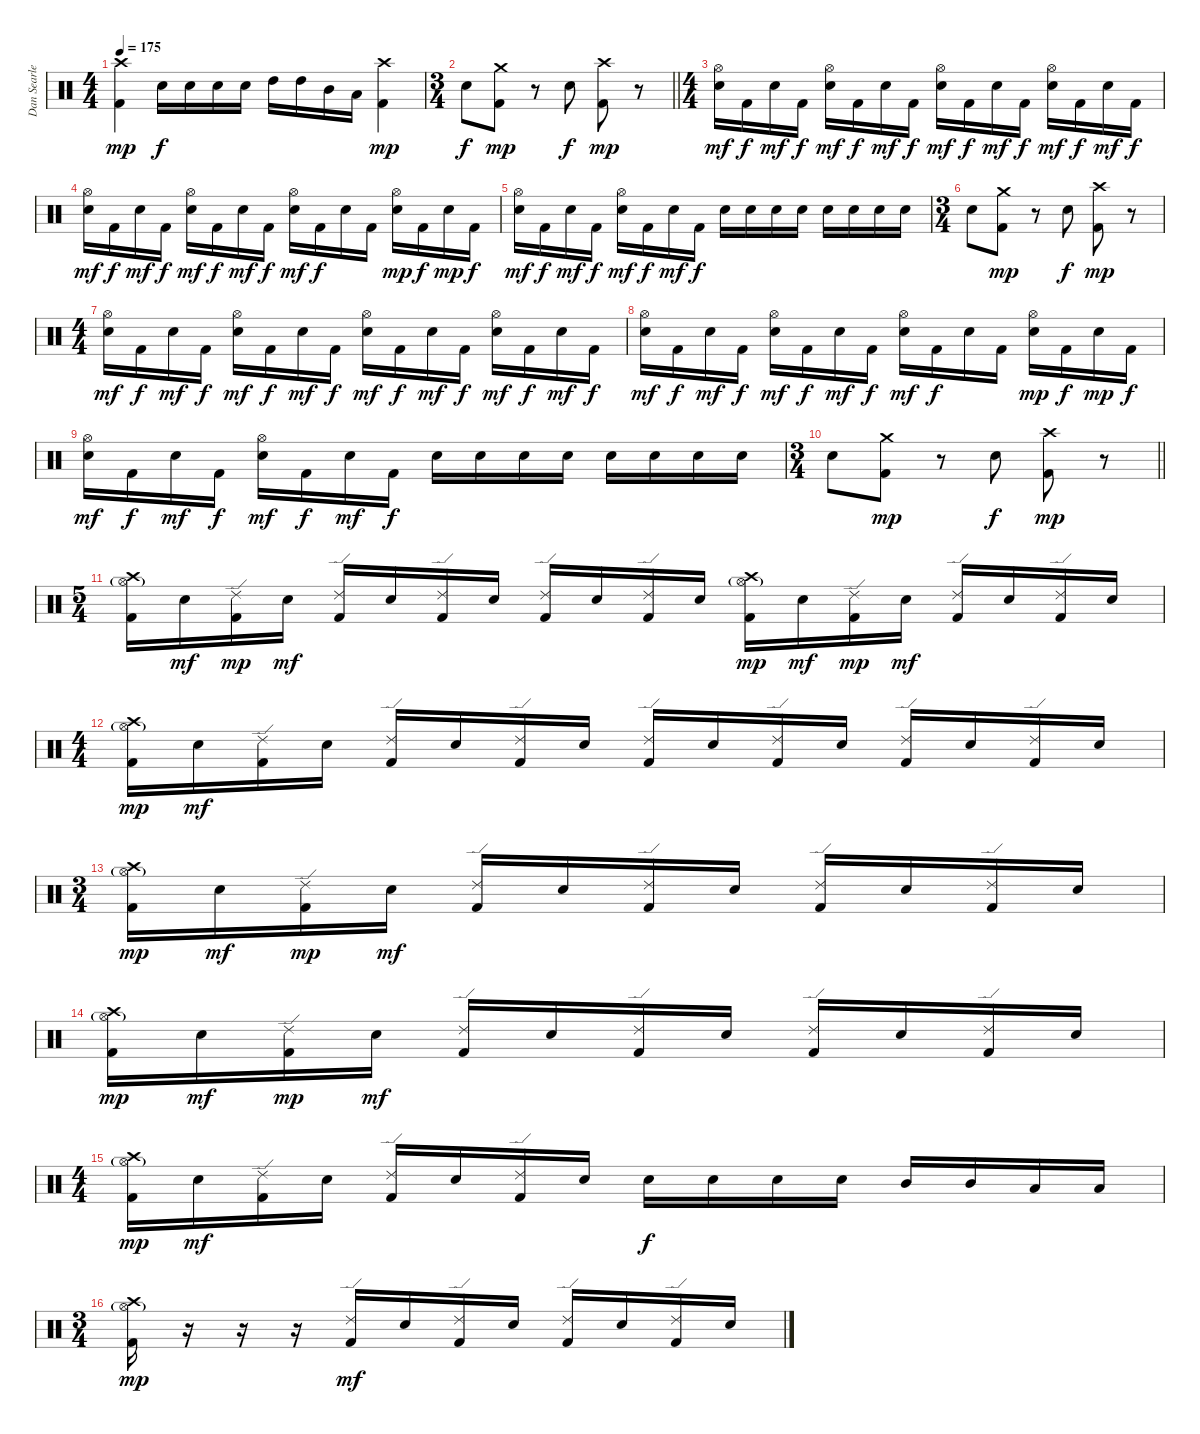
\track ("Dan Searle" "Dan Searle") {instrument percussion}
\staff {score}
\articulation defaults
\ts (4 4)
\tempo 175
\clef neutral
\ks c
("Crash high (hit)" "Kick (hit) 2").4{dy mp} "Electric Snare (hit)".16{dy f} "Electric Snare (hit)".16 "Electric Snare (hit)".16 "Electric Snare (hit)".16 "High Tom (hit)".16 "High Tom (hit)".16 "Mid Tom (hit)".16 "Low Tom (hit)".16 ("Crash high (hit)" "Kick (hit) 2").4{dy mp} |
\ts (3 4)
\barLineRight lightlight "Electric Snare (hit)".8{dy f}
("Crash medium (hit)" "Kick (hit) 2").8{dy mp} r.8 "Electric Snare (hit)".8{dy f} ("Crash high (hit)" "Kick (hit) 2").8{dy mp} r.8 |
\ts (4 4)
("Hi-Hat (open)" "Electric Snare (hit)").16{dy mf} "Kick (hit) 2".16{dy f} "Electric Snare (hit)".16{dy mf} "Kick (hit) 2".16{dy f} ("Hi-Hat (open)" "Electric Snare (hit)").16{dy mf} "Kick (hit) 2".16{dy f} "Electric Snare (hit)".16{dy mf} "Kick (hit) 2".16{dy f} ("Hi-Hat (open)" "Electric Snare (hit)").16{dy mf} "Kick (hit) 2".16{dy f} "Electric Snare (hit)".16{dy mf} "Kick (hit) 2".16{dy f} ("Hi-Hat (open)" "Electric Snare (hit)").16{dy mf} "Kick (hit) 2".16{dy f} "Electric Snare (hit)".16{dy mf} "Kick (hit) 2".16{dy f} |
("Hi-Hat (open)" "Electric Snare (hit)").16{dy mf} "Kick (hit) 2".16{dy f} "Electric Snare (hit)".16{dy mf} "Kick (hit) 2".16{dy f} ("Hi-Hat (open)" "Electric Snare (hit)").16{dy mf} "Kick (hit) 2".16{dy f} "Electric Snare (hit)".16{dy mf} "Kick (hit) 2".16{dy f} ("Hi-Hat (open)" "Electric Snare (hit)").16{dy mf} "Kick (hit) 2".16{dy f} "Electric Snare (hit)".16 "Kick (hit) 2".16 ("Hi-Hat (open)" "Electric Snare (hit)").16{dy mp} "Kick (hit) 2".16{dy f} "Electric Snare (hit)".16{dy mp} "Kick (hit) 2".16{dy f} |
("Hi-Hat (open)" "Electric Snare (hit)").16{dy mf} "Kick (hit) 2".16{dy f} "Electric Snare (hit)".16{dy mf} "Kick (hit) 2".16{dy f} ("Hi-Hat (open)" "Electric Snare (hit)").16{dy mf} "Kick (hit) 2".16{dy f} "Electric Snare (hit)".16{dy mf} "Kick (hit) 2".16{dy f} "Electric Snare (hit)".16 "Electric Snare (hit)".16 "Electric Snare (hit)".16 "Electric Snare (hit)".16 "Electric Snare (hit)".16 "Electric Snare (hit)".16 "Electric Snare (hit)".16 "Electric Snare (hit)".16 |
\ts (3 4)
"Electric Snare (hit)".8 ("Crash medium (hit)" "Kick (hit) 2").8{dy mp} r.8 "Electric Snare (hit)".8{dy f} ("Crash high (hit)" "Kick (hit) 2").8{dy mp} r.8 |
\ts (4 4)
("Hi-Hat (open)" "Electric Snare (hit)").16{dy mf} "Kick (hit) 2".16{dy f} "Electric Snare (hit)".16{dy mf} "Kick (hit) 2".16{dy f} ("Hi-Hat (open)" "Electric Snare (hit)").16{dy mf} "Kick (hit) 2".16{dy f} "Electric Snare (hit)".16{dy mf} "Kick (hit) 2".16{dy f} ("Hi-Hat (open)" "Electric Snare (hit)").16{dy mf} "Kick (hit) 2".16{dy f} "Electric Snare (hit)".16{dy mf} "Kick (hit) 2".16{dy f} ("Hi-Hat (open)" "Electric Snare (hit)").16{dy mf} "Kick (hit) 2".16{dy f} "Electric Snare (hit)".16{dy mf} "Kick (hit) 2".16{dy f} |
("Hi-Hat (open)" "Electric Snare (hit)").16{dy mf} "Kick (hit) 2".16{dy f} "Electric Snare (hit)".16{dy mf} "Kick (hit) 2".16{dy f} ("Hi-Hat (open)" "Electric Snare (hit)").16{dy mf} "Kick (hit) 2".16{dy f} "Electric Snare (hit)".16{dy mf} "Kick (hit) 2".16{dy f} ("Hi-Hat (open)" "Electric Snare (hit)").16{dy mf} "Kick (hit) 2".16{dy f} "Electric Snare (hit)".16 "Kick (hit) 2".16 ("Hi-Hat (open)" "Electric Snare (hit)").16{dy mp} "Kick (hit) 2".16{dy f} "Electric Snare (hit)".16{dy mp} "Kick (hit) 2".16{dy f} |
("Hi-Hat (open)" "Electric Snare (hit)").16{dy mf} "Kick (hit) 2".16{dy f} "Electric Snare (hit)".16{dy mf} "Kick (hit) 2".16{dy f} ("Hi-Hat (open)" "Electric Snare (hit)").16{dy mf} "Kick (hit) 2".16{dy f} "Electric Snare (hit)".16{dy mf} "Kick (hit) 2".16{dy f} "Electric Snare (hit)".16 "Electric Snare (hit)".16 "Electric Snare (hit)".16 "Electric Snare (hit)".16 "Electric Snare (hit)".16 "Electric Snare (hit)".16 "Electric Snare (hit)".16 "Electric Snare (hit)".16 |
\ts (3 4)
\barLineRight lightlight "Electric Snare (hit)".8
("Crash medium (hit)" "Kick (hit) 2").8{dy mp} r.8 "Electric Snare (hit)".8{dy f} ("Crash high (hit)" "Kick (hit) 2").8{dy mp} r.8 |
\ts (5 4)
("Crash high (hit)" "Hi-Hat (open)"{g} "Kick (hit) 2").16 "Electric Snare (hit)".16{dy mf} ("Ride (edge) 2" "Kick (hit) 2").16{dy mp} "Electric Snare (hit)".16{dy mf} ("Ride (edge) 2" "Kick (hit) 2").16 "Electric Snare (hit)".16 ("Ride (edge) 2" "Kick (hit) 2").16 "Electric Snare (hit)".16 ("Ride (edge) 2" "Kick (hit) 2").16 "Electric Snare (hit)".16 ("Ride (edge) 2" "Kick (hit) 2").16 "Electric Snare (hit)".16 ("Crash high (hit)" "Hi-Hat (open)"{g} "Kick (hit) 2").16{dy mp} "Electric Snare (hit)".16{dy mf} ("Ride (edge) 2" "Kick (hit) 2").16{dy mp} "Electric Snare (hit)".16{dy mf} ("Ride (edge) 2" "Kick (hit) 2").16 "Electric Snare (hit)".16 ("Ride (edge) 2" "Kick (hit) 2").16 "Electric Snare (hit)".16 |
\ts (4 4)
("Crash high (hit)" "Hi-Hat (open)"{g} "Kick (hit) 2").16{dy mp} "Electric Snare (hit)".16{dy mf} ("Ride (edge) 2" "Kick (hit) 2").16 "Electric Snare (hit)".16 ("Ride (edge) 2" "Kick (hit) 2").16 "Electric Snare (hit)".16 ("Ride (edge) 2" "Kick (hit) 2").16 "Electric Snare (hit)".16 ("Ride (edge) 2" "Kick (hit) 2").16 "Electric Snare (hit)".16 ("Ride (edge) 2" "Kick (hit) 2").16 "Electric Snare (hit)".16 ("Ride (edge) 2" "Kick (hit) 2").16 "Electric Snare (hit)".16 ("Ride (edge) 2" "Kick (hit) 2").16 "Electric Snare (hit)".16 |
\ts (3 4)
("Crash high (hit)" "Hi-Hat (open)"{g} "Kick (hit) 2").16{dy mp} "Electric Snare (hit)".16{dy mf} ("Ride (edge) 2" "Kick (hit) 2").16{dy mp} "Electric Snare (hit)".16{dy mf} ("Ride (edge) 2" "Kick (hit) 2").16 "Electric Snare (hit)".16 ("Ride (edge) 2" "Kick (hit) 2").16 "Electric Snare (hit)".16 ("Ride (edge) 2" "Kick (hit) 2").16 "Electric Snare (hit)".16 ("Ride (edge) 2" "Kick (hit) 2").16 "Electric Snare (hit)".16 |
("Crash high (hit)" "Hi-Hat (open)"{g} "Kick (hit) 2").16{dy mp} "Electric Snare (hit)".16{dy mf} ("Ride (edge) 2" "Kick (hit) 2").16{dy mp} "Electric Snare (hit)".16{dy mf} ("Ride (edge) 2" "Kick (hit) 2").16 "Electric Snare (hit)".16 ("Ride (edge) 2" "Kick (hit) 2").16 "Electric Snare (hit)".16 ("Ride (edge) 2" "Kick (hit) 2").16 "Electric Snare (hit)".16 ("Ride (edge) 2" "Kick (hit) 2").16 "Electric Snare (hit)".16 |
\ts (4 4)
("Crash high (hit)" "Hi-Hat (open)"{g} "Kick (hit) 2").16{dy mp} "Electric Snare (hit)".16{dy mf} ("Ride (edge) 2" "Kick (hit) 2").16 "Electric Snare (hit)".16 ("Ride (edge) 2" "Kick (hit) 2").16 "Electric Snare (hit)".16 ("Ride (edge) 2" "Kick (hit) 2").16 "Electric Snare (hit)".16 "Electric Snare (hit)".16{dy f} "Electric Snare (hit)".16 "Electric Snare (hit)".16 "Electric Snare (hit)".16 "Mid Tom (hit)".16 "Mid Tom (hit)".16 "Low Tom (hit)".16 "Low Tom (hit)".16 |
\ts (3 4)
("Crash high (hit)" "Hi-Hat (open)"{g} "Kick (hit) 2").16{dy mp} r.16 r.16 r.16 ("Ride (edge) 2" "Kick (hit) 2").16{dy mf} "Electric Snare (hit)".16 ("Ride (edge) 2" "Kick (hit) 2").16 "Electric Snare (hit)".16 ("Ride (edge) 2" "Kick (hit) 2").16 "Electric Snare (hit)".16 ("Ride (edge) 2" "Kick (hit) 2").16 "Electric Snare (hit)".16
